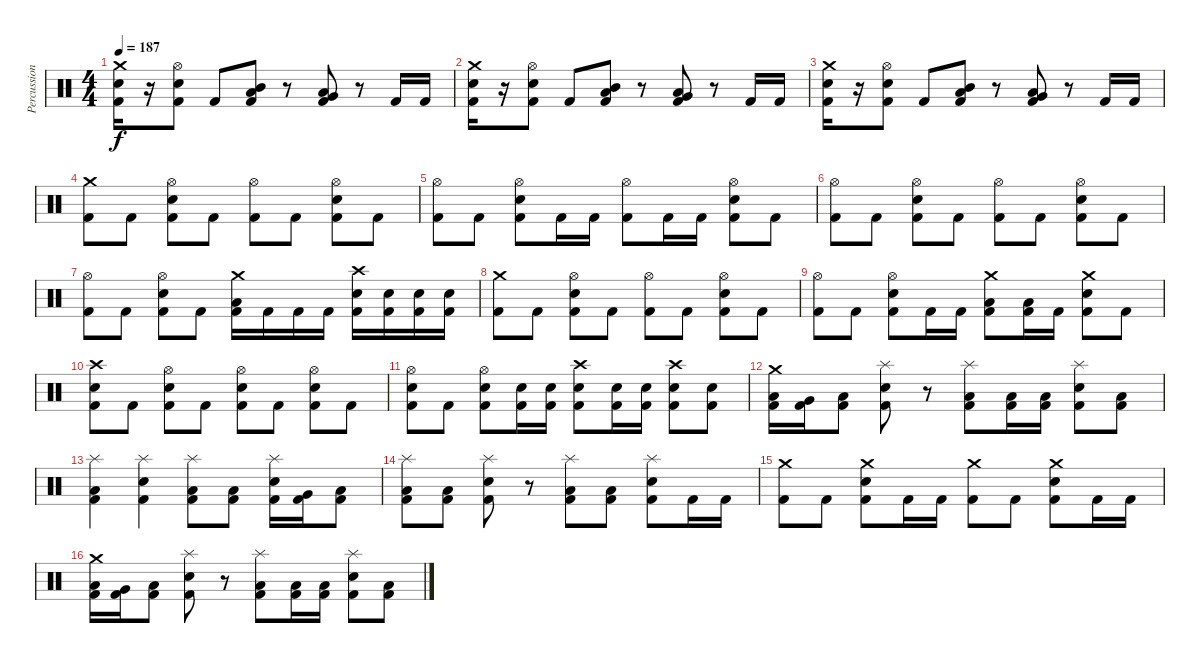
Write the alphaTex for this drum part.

\track ("Percussion" "Percussion") {instrument percussion}
\staff {score}
\articulation defaults
\ts (4 4)
\tempo 187
\clef neutral
\ks c
("Crash medium (hit)" "Electric Snare (hit)" "Kick (hit) 2").16{dy f} r.16 ("Hi-Hat (open)" "Electric Snare (hit)" "Kick (hit) 2").8 "Kick (hit) 2".8 ("Mid Tom (hit)" "Low Tom (hit)" "Kick (hit) 2").8 r.8 ("Very Low Tom (hit)" "Low Floor Tom (hit)" "Kick (hit) 2").8 r.8 "Kick (hit) 2".16 "Kick (hit) 2".16 |
("Crash medium (hit)" "Electric Snare (hit)" "Kick (hit) 2").16 r.16 ("Hi-Hat (open)" "Electric Snare (hit)" "Kick (hit) 2").8 "Kick (hit) 2".8 ("Mid Tom (hit)" "Low Tom (hit)" "Kick (hit) 2").8 r.8 ("Very Low Tom (hit)" "Low Floor Tom (hit)" "Kick (hit) 2").8 r.8 "Kick (hit) 2".16 "Kick (hit) 2".16 |
("Crash medium (hit)" "Electric Snare (hit)" "Kick (hit) 2").16 r.16 ("Hi-Hat (open)" "Electric Snare (hit)" "Kick (hit) 2").8 "Kick (hit) 2".8 ("Mid Tom (hit)" "Low Tom (hit)" "Kick (hit) 2").8 r.8 ("Very Low Tom (hit)" "Low Floor Tom (hit)" "Kick (hit) 2").8 r.8 "Kick (hit) 2".16 "Kick (hit) 2".16 |
("Crash medium (hit)" "Kick (hit) 2").8 "Kick (hit) 2".8 ("Hi-Hat (open)" "Electric Snare (hit)" "Kick (hit) 2").8 "Kick (hit) 2".8 ("Hi-Hat (open)" "Kick (hit) 2").8 "Kick (hit) 2".8 ("Hi-Hat (open)" "Electric Snare (hit)" "Kick (hit) 2").8 "Kick (hit) 2".8 |
("Hi-Hat (open)" "Kick (hit) 2").8 "Kick (hit) 2".8 ("Hi-Hat (open)" "Electric Snare (hit)" "Kick (hit) 2").8 "Kick (hit) 2".16 "Kick (hit) 2".16 ("Hi-Hat (open)" "Kick (hit) 2").8 "Kick (hit) 2".16 "Kick (hit) 2".16 ("Hi-Hat (open)" "Electric Snare (hit)" "Kick (hit) 2").8 "Kick (hit) 2".8 |
("Hi-Hat (open)" "Kick (hit) 2").8 "Kick (hit) 2".8 ("Hi-Hat (open)" "Electric Snare (hit)" "Kick (hit) 2").8 "Kick (hit) 2".8 ("Hi-Hat (open)" "Kick (hit) 2").8 "Kick (hit) 2".8 ("Hi-Hat (open)" "Electric Snare (hit)" "Kick (hit) 2").8 "Kick (hit) 2".8 |
("Hi-Hat (open)" "Kick (hit) 2").8 "Kick (hit) 2".8 ("Hi-Hat (open)" "Electric Snare (hit)" "Kick (hit) 2").8 "Kick (hit) 2".8 ("Crash medium (hit)" "Low Floor Tom (hit)" "Kick (hit) 2").16 "Kick (hit) 2".16 "Kick (hit) 2".16 "Kick (hit) 2".16 ("Crash high (hit)" "Electric Snare (hit)" "Kick (hit) 2").16 ("Electric Snare (hit)" "Kick (hit) 2").16 ("Electric Snare (hit)" "Kick (hit) 2").16 ("Electric Snare (hit)" "Kick (hit) 2").16 |
("Crash medium (hit)" "Kick (hit) 2").8 "Kick (hit) 2".8 ("Hi-Hat (open)" "Electric Snare (hit)" "Kick (hit) 2").8 "Kick (hit) 2".8 ("Hi-Hat (open)" "Kick (hit) 2").8 "Kick (hit) 2".8 ("Hi-Hat (open)" "Electric Snare (hit)" "Kick (hit) 2").8 "Kick (hit) 2".8 |
("Hi-Hat (open)" "Kick (hit) 2").8 "Kick (hit) 2".8 ("Hi-Hat (open)" "Electric Snare (hit)" "Kick (hit) 2").8 "Kick (hit) 2".16 "Kick (hit) 2".16 ("Crash medium (hit)" "Low Floor Tom (hit)" "Kick (hit) 2").8 ("Low Floor Tom (hit)" "Kick (hit) 2").16 "Kick (hit) 2".16 ("Crash medium (hit)" "Electric Snare (hit)" "Kick (hit) 2").8 "Kick (hit) 2".8 |
("Crash high (hit)" "Electric Snare (hit)" "Kick (hit) 2").8 "Kick (hit) 2".8 ("Hi-Hat (open)" "Electric Snare (hit)" "Kick (hit) 2").8 "Kick (hit) 2".8 ("Hi-Hat (open)" "Electric Snare (hit)" "Kick (hit) 2").8 "Kick (hit) 2".8 ("Hi-Hat (open)" "Electric Snare (hit)" "Kick (hit) 2").8 "Kick (hit) 2".8 |
("Hi-Hat (open)" "Electric Snare (hit)" "Kick (hit) 2").8 "Kick (hit) 2".8 ("Hi-Hat (open)" "Electric Snare (hit)" "Kick (hit) 2").8 ("Electric Snare (hit)" "Kick (hit) 2").16 ("Electric Snare (hit)" "Kick (hit) 2").16 ("Crash high (hit)" "Electric Snare (hit)" "Kick (hit) 2").8 ("Electric Snare (hit)" "Kick (hit) 2").16 ("Electric Snare (hit)" "Kick (hit) 2").16 ("Crash high (hit)" "Electric Snare (hit)" "Kick (hit) 2").8 ("Electric Snare (hit)" "Kick (hit) 2").8 |
("Crash medium (hit)" "Low Tom (hit)" "Kick (hit) 2").16 ("Very Low Tom (hit)" "Kick (hit) 2").16 ("Low Floor Tom (hit)" "Kick (hit) 2").8 ("Splash (hit)" "Electric Snare (hit)" "Kick (hit) 2").8 r.8 ("Splash (hit)" "Low Floor Tom (hit)" "Kick (hit) 2").8 ("Low Floor Tom (hit)" "Kick (hit) 2").16 ("Low Floor Tom (hit)" "Kick (hit) 2").16 ("Splash (hit)" "Electric Snare (hit)" "Kick (hit) 2").8 ("Low Floor Tom (hit)" "Kick (hit) 2").8 |
("Splash (hit)" "Low Floor Tom (hit)" "Kick (hit) 2").4 ("Splash (hit)" "Electric Snare (hit)" "Kick (hit) 2").4 ("Splash (hit)" "Low Floor Tom (hit)" "Kick (hit) 2").8 ("Low Floor Tom (hit)" "Kick (hit) 2").8 ("Splash (hit)" "Electric Snare (hit)" "Kick (hit) 2").16 ("Very Low Tom (hit)" "Kick (hit) 2").16 ("Low Floor Tom (hit)" "Kick (hit) 2").8 |
("Splash (hit)" "Low Tom (hit)" "Kick (hit) 2").8 ("Low Floor Tom (hit)" "Kick (hit) 2").8 ("Splash (hit)" "Electric Snare (hit)" "Kick (hit) 2").8 r.8 ("Splash (hit)" "Low Floor Tom (hit)" "Kick (hit) 2").8 ("Low Floor Tom (hit)" "Kick (hit) 2").8 ("Splash (hit)" "Electric Snare (hit)" "Kick (hit) 2").8 "Kick (hit) 2".16 "Kick (hit) 2".16 |
("Crash medium (hit)" "Kick (hit) 2").8 "Kick (hit) 2".8 ("Crash medium (hit)" "Electric Snare (hit)" "Kick (hit) 2").8 "Kick (hit) 2".16 "Kick (hit) 2".16 ("Crash medium (hit)" "Kick (hit) 2").8 "Kick (hit) 2".8 ("Crash medium (hit)" "Electric Snare (hit)" "Kick (hit) 2").8 "Kick (hit) 2".16 "Kick (hit) 2".16 |
("Crash medium (hit)" "Low Tom (hit)" "Kick (hit) 2").16 ("Very Low Tom (hit)" "Kick (hit) 2").16 ("Low Floor Tom (hit)" "Kick (hit) 2").8 ("Splash (hit)" "Electric Snare (hit)" "Kick (hit) 2").8 r.8 ("Splash (hit)" "Low Floor Tom (hit)" "Kick (hit) 2").8 ("Low Floor Tom (hit)" "Kick (hit) 2").16 ("Low Floor Tom (hit)" "Kick (hit) 2").16 ("Splash (hit)" "Electric Snare (hit)" "Kick (hit) 2").8 ("Low Floor Tom (hit)" "Kick (hit) 2").8
